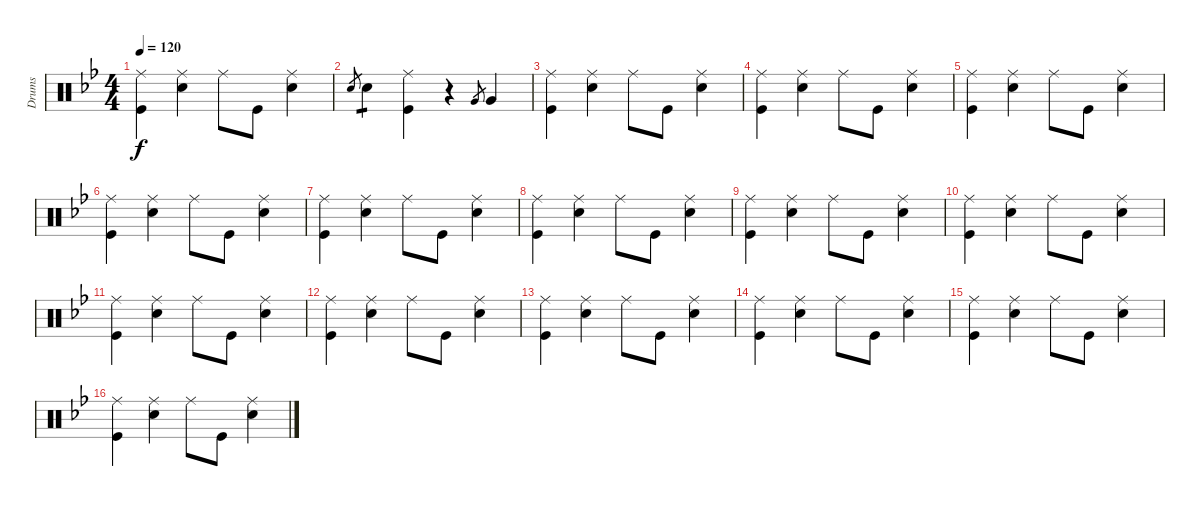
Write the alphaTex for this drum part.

\track ("Drums" "Drums") {instrument percussion}
\staff {score}
\articulation defaults
\ts (4 4)
\tempo 120
\clef neutral
\ks bb
("Ride (middle)" "Kick (hit)").4{dy f} ("Ride (middle)" "Snare (hit) 2").4 "Ride (middle)".8 "Kick (hit)".8 ("Ride (middle)" "Snare (hit) 2").4 |
"Snare (hit) 2".8{gr} "Snare (hit) 2".4{tp 1} ("Ride (middle)" "Kick (hit)").4 r.4 "Very Low Tom (hit)".8{gr} "Very Low Tom (hit)".4 |
("Ride (middle)" "Kick (hit)").4 ("Ride (middle)" "Snare (hit) 2").4 "Ride (middle)".8 "Kick (hit)".8 ("Ride (middle)" "Snare (hit) 2").4 |
("Ride (middle)" "Kick (hit)").4 ("Ride (middle)" "Snare (hit) 2").4 "Ride (middle)".8 "Kick (hit)".8 ("Ride (middle)" "Snare (hit) 2").4 |
("Ride (middle)" "Kick (hit)").4 ("Ride (middle)" "Snare (hit) 2").4 "Ride (middle)".8 "Kick (hit)".8 ("Ride (middle)" "Snare (hit) 2").4 |
("Ride (middle)" "Kick (hit)").4 ("Ride (middle)" "Snare (hit) 2").4 "Ride (middle)".8 "Kick (hit)".8 ("Ride (middle)" "Snare (hit) 2").4 |
("Ride (middle)" "Kick (hit)").4 ("Ride (middle)" "Snare (hit) 2").4 "Ride (middle)".8 "Kick (hit)".8 ("Ride (middle)" "Snare (hit) 2").4 |
("Ride (middle)" "Kick (hit)").4 ("Ride (middle)" "Snare (hit) 2").4 "Ride (middle)".8 "Kick (hit)".8 ("Ride (middle)" "Snare (hit) 2").4 |
("Ride (middle)" "Kick (hit)").4 ("Ride (middle)" "Snare (hit) 2").4 "Ride (middle)".8 "Kick (hit)".8 ("Ride (middle)" "Snare (hit) 2").4 |
("Ride (middle)" "Kick (hit)").4 ("Ride (middle)" "Snare (hit) 2").4 "Ride (middle)".8 "Kick (hit)".8 ("Ride (middle)" "Snare (hit) 2").4 |
("Ride (middle)" "Kick (hit)").4 ("Ride (middle)" "Snare (hit) 2").4 "Ride (middle)".8 "Kick (hit)".8 ("Ride (middle)" "Snare (hit) 2").4 |
("Ride (middle)" "Kick (hit)").4 ("Ride (middle)" "Snare (hit) 2").4 "Ride (middle)".8 "Kick (hit)".8 ("Ride (middle)" "Snare (hit) 2").4 |
("Ride (middle)" "Kick (hit)").4 ("Ride (middle)" "Snare (hit) 2").4 "Ride (middle)".8 "Kick (hit)".8 ("Ride (middle)" "Snare (hit) 2").4 |
("Ride (middle)" "Kick (hit)").4 ("Ride (middle)" "Snare (hit) 2").4 "Ride (middle)".8 "Kick (hit)".8 ("Ride (middle)" "Snare (hit) 2").4 |
("Ride (middle)" "Kick (hit)").4 ("Ride (middle)" "Snare (hit) 2").4 "Ride (middle)".8 "Kick (hit)".8 ("Ride (middle)" "Snare (hit) 2").4 |
("Ride (middle)" "Kick (hit)").4 ("Ride (middle)" "Snare (hit) 2").4 "Ride (middle)".8 "Kick (hit)".8 ("Ride (middle)" "Snare (hit) 2").4
